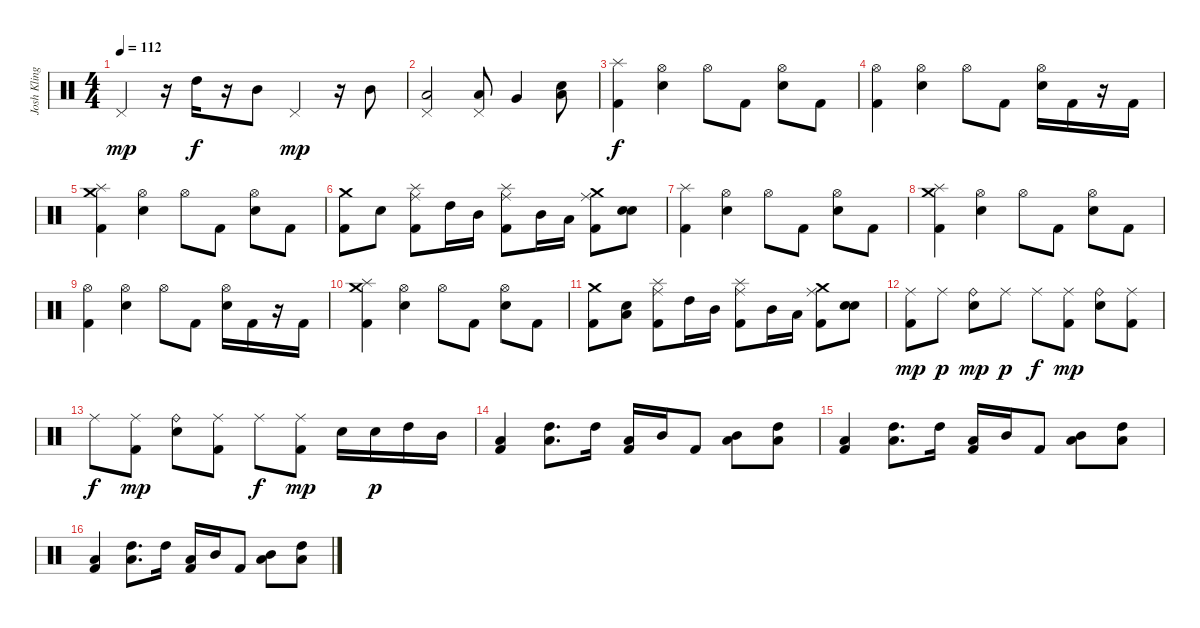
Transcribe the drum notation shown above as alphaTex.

\track ("Josh Klinghoffer " "Josh Kling") {instrument percussion}
\staff {score}
\articulation defaults
\ts (4 4)
\tempo 112
\clef neutral
\ks c "Pedal Hi-Hat (hit)".4{dy mp}
r.16 "High Tom (hit)".16{dy f} r.16 "Mid Tom (hit)".8 "Pedal Hi-Hat (hit)".4{dy mp} r.16 "Mid Tom (hit)".8 |
("Pedal Hi-Hat (hit)" "Low Tom (hit)").2 ("Pedal Hi-Hat (hit)" "Low Tom (hit)").8 "Very Low Tom (hit)".4 ("Low Floor Tom (hit)" "Electric Snare (hit)").8 |
("Splash (hit)" "Kick (hit) 2").4{dy f} ("Hi-Hat (open)" "Electric Snare (hit)").4 "Hi-Hat (open)".8 "Kick (hit) 2".8 ("Hi-Hat (open)" "Electric Snare (hit)").8 "Kick (hit) 2".8 |
("Hi-Hat (open)" "Kick (hit) 2").4 ("Hi-Hat (open)" "Electric Snare (hit)").4 "Hi-Hat (open)".8 "Kick (hit) 2".8 ("Hi-Hat (open)" "Electric Snare (hit)").16 "Kick (hit) 2".16 r.16 "Kick (hit) 2".16 |
("Splash (hit)" "Crash medium (hit)" "Kick (hit) 2").4 ("Hi-Hat (open)" "Electric Snare (hit)").4 "Hi-Hat (open)".8 "Kick (hit) 2".8 ("Hi-Hat (open)" "Electric Snare (hit)").8 "Kick (hit) 2".8 |
("Crash medium (hit)" "Kick (hit) 2").8 "Electric Snare (hit)".8 ("Ride (middle)" "Splash (hit)" "Kick (hit) 2").8 "High Tom (hit)".16 "Mid Tom (hit)".16 ("Ride (middle)" "Splash (hit)" "Kick (hit) 2").8 "Mid Tom (hit)".16 "Low Tom (hit)".16 ("Ride (middle)" "Crash medium (hit)" "Kick (hit) 2").8 ("Electric Snare (hit)" "Electric Snare (hit)").8 |
("Splash (hit)" "Kick (hit) 2").4 ("Hi-Hat (open)" "Electric Snare (hit)").4 "Hi-Hat (open)".8 "Kick (hit) 2".8 ("Hi-Hat (open)" "Electric Snare (hit)").8 "Kick (hit) 2".8 |
("Splash (hit)" "Crash medium (hit)" "Kick (hit) 2").4 ("Hi-Hat (open)" "Electric Snare (hit)").4 "Hi-Hat (open)".8 "Kick (hit) 2".8 ("Hi-Hat (open)" "Electric Snare (hit)").8 "Kick (hit) 2".8 |
("Hi-Hat (open)" "Kick (hit) 2").4 ("Hi-Hat (open)" "Electric Snare (hit)").4 "Hi-Hat (open)".8 "Kick (hit) 2".8 ("Hi-Hat (open)" "Electric Snare (hit)").16 "Kick (hit) 2".16 r.16 "Kick (hit) 2".16 |
("Splash (hit)" "Crash medium (hit)" "Kick (hit) 2").4 ("Hi-Hat (open)" "Electric Snare (hit)").4 "Hi-Hat (open)".8 "Kick (hit) 2".8 ("Hi-Hat (open)" "Electric Snare (hit)").8 "Kick (hit) 2".8 |
("Crash medium (hit)" "Kick (hit) 2").8 ("Electric Snare (hit)" "Low Floor Tom (hit)").8 ("Ride (middle)" "Splash (hit)" "Kick (hit) 2").8 "High Tom (hit)".16 "Mid Tom (hit)".16 ("Ride (middle)" "Splash (hit)" "Kick (hit) 2").8 "Mid Tom (hit)".16 "Low Tom (hit)".16 ("Ride (middle)" "Crash medium (hit)" "Kick (hit) 2").8 ("Electric Snare (hit)" "Electric Snare (hit)").8 |
("Ride (middle)" "Kick (hit) 2").8{dy mp} "Ride (middle)".8{dy p} ("Ride (bell)" "Electric Snare (hit)").8{dy mp} "Ride (middle)".8{dy p} "Ride (middle)".8{dy f} ("Ride (middle)" "Kick (hit) 2").8{dy mp} ("Ride (bell)" "Electric Snare (hit)").8 ("Ride (middle)" "Kick (hit) 2").8 |
"Ride (middle)".8{dy f} ("Ride (middle)" "Kick (hit) 2").8{dy mp} ("Ride (bell)" "Electric Snare (hit)").8 ("Ride (middle)" "Kick (hit) 2").8 "Ride (middle)".8{dy f} ("Ride (middle)" "Kick (hit) 2").8{dy mp} "Electric Snare (hit)".16 "Electric Snare (hit)".16{dy p} "High Tom (hit)".16 "Mid Tom (hit)".16 |
("Low Floor Tom (hit)" "Kick (hit) 2").4 ("High Tom (hit)" "Low Floor Tom (hit)").8{d} "High Tom (hit)".16 ("Low Floor Tom (hit)" "Kick (hit) 2").16 "Mid Tom (hit)".16 "Kick (hit) 2".8 ("Mid Tom (hit)" "Low Floor Tom (hit)").8 ("High Tom (hit)" "Low Floor Tom (hit)").8 |
("Low Floor Tom (hit)" "Kick (hit) 2").4 ("High Tom (hit)" "Low Floor Tom (hit)").8{d} "High Tom (hit)".16 ("Low Floor Tom (hit)" "Kick (hit) 2").16 "Mid Tom (hit)".16 "Kick (hit) 2".8 ("Mid Tom (hit)" "Low Floor Tom (hit)").8 ("High Tom (hit)" "Low Floor Tom (hit)").8 |
("Low Floor Tom (hit)" "Kick (hit) 2").4 ("High Tom (hit)" "Low Floor Tom (hit)").8{d} "High Tom (hit)".16 ("Low Floor Tom (hit)" "Kick (hit) 2").16 "Mid Tom (hit)".16 "Kick (hit) 2".8 ("Mid Tom (hit)" "Low Floor Tom (hit)").8 ("High Tom (hit)" "Low Floor Tom (hit)").8
